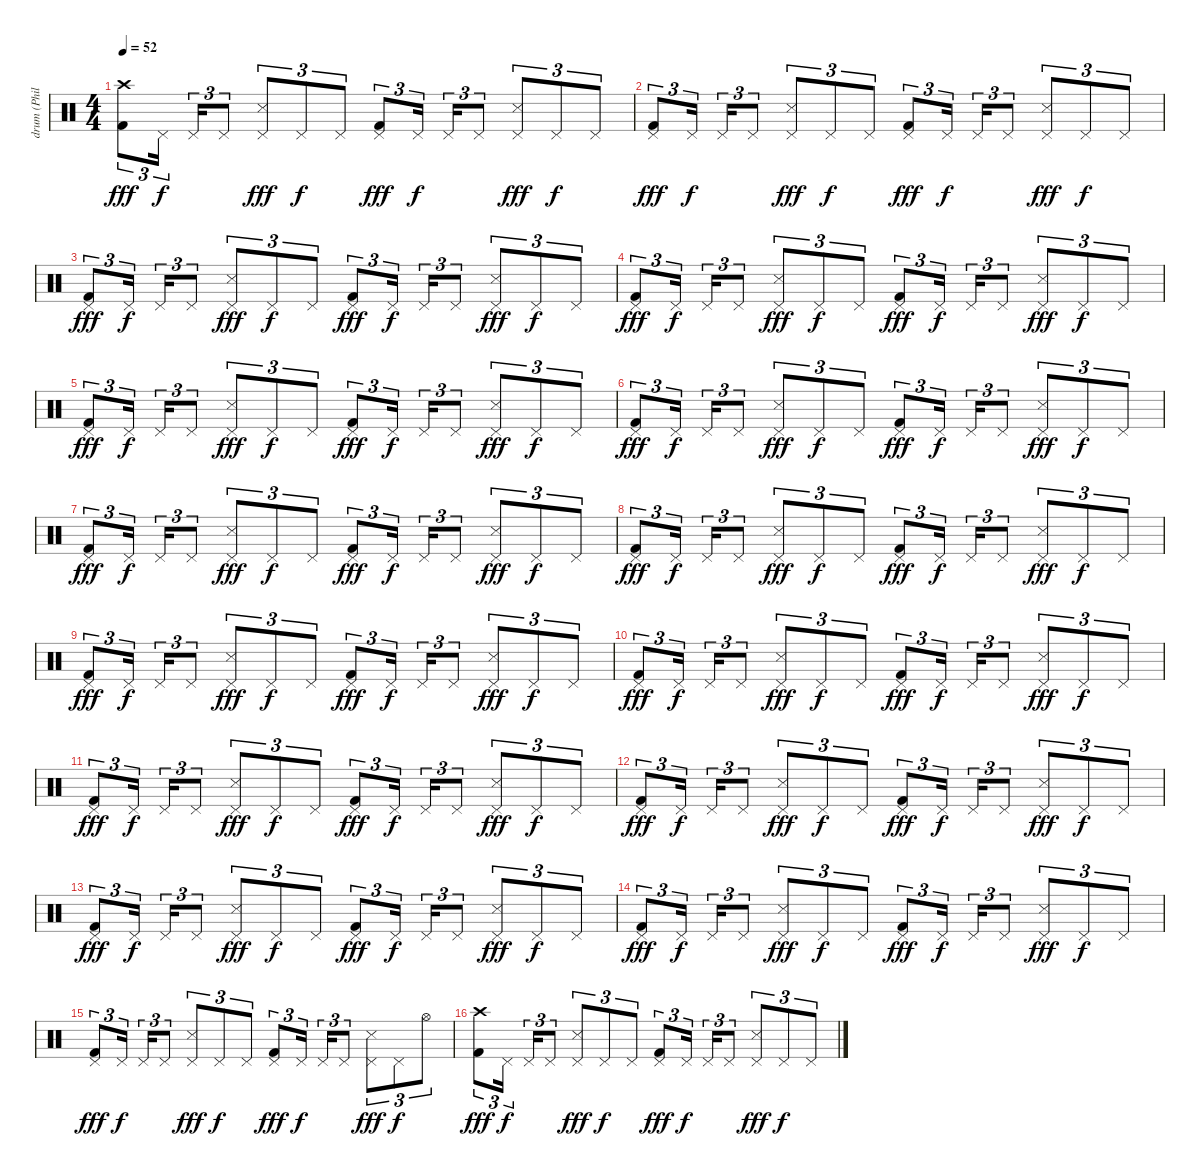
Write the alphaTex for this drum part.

\track ("drum (Phil)" "drum (Phil") {instrument percussion}
\staff {score}
\articulation defaults
\ts (4 4)
\tempo 52
\clef neutral
\ks c
("Crash high (hit)" "Kick (hit) 2").8{tu (3 2) dy fff} "Pedal Hi-Hat (hit)".16{tu (3 2) dy f} "Pedal Hi-Hat (hit)".16{tu (3 2)} "Pedal Hi-Hat (hit)".8{tu (3 2)} ("Pedal Hi-Hat (hit)" "Snare (side stick) 3").8{tu (3 2) dy fff} "Pedal Hi-Hat (hit)".8{tu (3 2) dy f} "Pedal Hi-Hat (hit)".8{tu (3 2)} ("Pedal Hi-Hat (hit)" "Kick (hit) 2").8{tu (3 2) dy fff} "Pedal Hi-Hat (hit)".16{tu (3 2) dy f} "Pedal Hi-Hat (hit)".16{tu (3 2)} "Pedal Hi-Hat (hit)".8{tu (3 2)} ("Pedal Hi-Hat (hit)" "Snare (side stick) 3").8{tu (3 2) dy fff} "Pedal Hi-Hat (hit)".8{tu (3 2) dy f} "Pedal Hi-Hat (hit)".8{tu (3 2)} |
("Pedal Hi-Hat (hit)" "Kick (hit) 2").8{tu (3 2) dy fff} "Pedal Hi-Hat (hit)".16{tu (3 2) dy f} "Pedal Hi-Hat (hit)".16{tu (3 2)} "Pedal Hi-Hat (hit)".8{tu (3 2)} ("Pedal Hi-Hat (hit)" "Snare (side stick) 3").8{tu (3 2) dy fff} "Pedal Hi-Hat (hit)".8{tu (3 2) dy f} "Pedal Hi-Hat (hit)".8{tu (3 2)} ("Pedal Hi-Hat (hit)" "Kick (hit) 2").8{tu (3 2) dy fff} "Pedal Hi-Hat (hit)".16{tu (3 2) dy f} "Pedal Hi-Hat (hit)".16{tu (3 2)} "Pedal Hi-Hat (hit)".8{tu (3 2)} ("Pedal Hi-Hat (hit)" "Snare (side stick) 3").8{tu (3 2) dy fff} "Pedal Hi-Hat (hit)".8{tu (3 2) dy f} "Pedal Hi-Hat (hit)".8{tu (3 2)} |
("Pedal Hi-Hat (hit)" "Kick (hit) 2").8{tu (3 2) dy fff} "Pedal Hi-Hat (hit)".16{tu (3 2) dy f} "Pedal Hi-Hat (hit)".16{tu (3 2)} "Pedal Hi-Hat (hit)".8{tu (3 2)} ("Pedal Hi-Hat (hit)" "Snare (side stick) 3").8{tu (3 2) dy fff} "Pedal Hi-Hat (hit)".8{tu (3 2) dy f} "Pedal Hi-Hat (hit)".8{tu (3 2)} ("Pedal Hi-Hat (hit)" "Kick (hit) 2").8{tu (3 2) dy fff} "Pedal Hi-Hat (hit)".16{tu (3 2) dy f} "Pedal Hi-Hat (hit)".16{tu (3 2)} "Pedal Hi-Hat (hit)".8{tu (3 2)} ("Pedal Hi-Hat (hit)" "Snare (side stick) 3").8{tu (3 2) dy fff} "Pedal Hi-Hat (hit)".8{tu (3 2) dy f} "Pedal Hi-Hat (hit)".8{tu (3 2)} |
("Pedal Hi-Hat (hit)" "Kick (hit) 2").8{tu (3 2) dy fff} "Pedal Hi-Hat (hit)".16{tu (3 2) dy f} "Pedal Hi-Hat (hit)".16{tu (3 2)} "Pedal Hi-Hat (hit)".8{tu (3 2)} ("Pedal Hi-Hat (hit)" "Snare (side stick) 3").8{tu (3 2) dy fff} "Pedal Hi-Hat (hit)".8{tu (3 2) dy f} "Pedal Hi-Hat (hit)".8{tu (3 2)} ("Pedal Hi-Hat (hit)" "Kick (hit) 2").8{tu (3 2) dy fff} "Pedal Hi-Hat (hit)".16{tu (3 2) dy f} "Pedal Hi-Hat (hit)".16{tu (3 2)} "Pedal Hi-Hat (hit)".8{tu (3 2)} ("Pedal Hi-Hat (hit)" "Snare (side stick) 3").8{tu (3 2) dy fff} "Pedal Hi-Hat (hit)".8{tu (3 2) dy f} "Pedal Hi-Hat (hit)".8{tu (3 2)} |
("Pedal Hi-Hat (hit)" "Kick (hit) 2").8{tu (3 2) dy fff} "Pedal Hi-Hat (hit)".16{tu (3 2) dy f} "Pedal Hi-Hat (hit)".16{tu (3 2)} "Pedal Hi-Hat (hit)".8{tu (3 2)} ("Pedal Hi-Hat (hit)" "Snare (side stick) 3").8{tu (3 2) dy fff} "Pedal Hi-Hat (hit)".8{tu (3 2) dy f} "Pedal Hi-Hat (hit)".8{tu (3 2)} ("Pedal Hi-Hat (hit)" "Kick (hit) 2").8{tu (3 2) dy fff} "Pedal Hi-Hat (hit)".16{tu (3 2) dy f} "Pedal Hi-Hat (hit)".16{tu (3 2)} "Pedal Hi-Hat (hit)".8{tu (3 2)} ("Pedal Hi-Hat (hit)" "Snare (side stick) 3").8{tu (3 2) dy fff} "Pedal Hi-Hat (hit)".8{tu (3 2) dy f} "Pedal Hi-Hat (hit)".8{tu (3 2)} |
("Pedal Hi-Hat (hit)" "Kick (hit) 2").8{tu (3 2) dy fff} "Pedal Hi-Hat (hit)".16{tu (3 2) dy f} "Pedal Hi-Hat (hit)".16{tu (3 2)} "Pedal Hi-Hat (hit)".8{tu (3 2)} ("Pedal Hi-Hat (hit)" "Snare (side stick) 3").8{tu (3 2) dy fff} "Pedal Hi-Hat (hit)".8{tu (3 2) dy f} "Pedal Hi-Hat (hit)".8{tu (3 2)} ("Pedal Hi-Hat (hit)" "Kick (hit) 2").8{tu (3 2) dy fff} "Pedal Hi-Hat (hit)".16{tu (3 2) dy f} "Pedal Hi-Hat (hit)".16{tu (3 2)} "Pedal Hi-Hat (hit)".8{tu (3 2)} ("Pedal Hi-Hat (hit)" "Snare (side stick) 3").8{tu (3 2) dy fff} "Pedal Hi-Hat (hit)".8{tu (3 2) dy f} "Pedal Hi-Hat (hit)".8{tu (3 2)} |
("Pedal Hi-Hat (hit)" "Kick (hit) 2").8{tu (3 2) dy fff} "Pedal Hi-Hat (hit)".16{tu (3 2) dy f} "Pedal Hi-Hat (hit)".16{tu (3 2)} "Pedal Hi-Hat (hit)".8{tu (3 2)} ("Pedal Hi-Hat (hit)" "Snare (side stick) 3").8{tu (3 2) dy fff} "Pedal Hi-Hat (hit)".8{tu (3 2) dy f} "Pedal Hi-Hat (hit)".8{tu (3 2)} ("Pedal Hi-Hat (hit)" "Kick (hit) 2").8{tu (3 2) dy fff} "Pedal Hi-Hat (hit)".16{tu (3 2) dy f} "Pedal Hi-Hat (hit)".16{tu (3 2)} "Pedal Hi-Hat (hit)".8{tu (3 2)} ("Pedal Hi-Hat (hit)" "Snare (side stick) 3").8{tu (3 2) dy fff} "Pedal Hi-Hat (hit)".8{tu (3 2) dy f} "Pedal Hi-Hat (hit)".8{tu (3 2)} |
("Pedal Hi-Hat (hit)" "Kick (hit) 2").8{tu (3 2) dy fff} "Pedal Hi-Hat (hit)".16{tu (3 2) dy f} "Pedal Hi-Hat (hit)".16{tu (3 2)} "Pedal Hi-Hat (hit)".8{tu (3 2)} ("Pedal Hi-Hat (hit)" "Snare (side stick) 3").8{tu (3 2) dy fff} "Pedal Hi-Hat (hit)".8{tu (3 2) dy f} "Pedal Hi-Hat (hit)".8{tu (3 2)} ("Pedal Hi-Hat (hit)" "Kick (hit) 2").8{tu (3 2) dy fff} "Pedal Hi-Hat (hit)".16{tu (3 2) dy f} "Pedal Hi-Hat (hit)".16{tu (3 2)} "Pedal Hi-Hat (hit)".8{tu (3 2)} ("Pedal Hi-Hat (hit)" "Snare (side stick) 3").8{tu (3 2) dy fff} "Pedal Hi-Hat (hit)".8{tu (3 2) dy f} "Pedal Hi-Hat (hit)".8{tu (3 2)} |
("Pedal Hi-Hat (hit)" "Kick (hit) 2").8{tu (3 2) dy fff} "Pedal Hi-Hat (hit)".16{tu (3 2) dy f} "Pedal Hi-Hat (hit)".16{tu (3 2)} "Pedal Hi-Hat (hit)".8{tu (3 2)} ("Pedal Hi-Hat (hit)" "Snare (side stick) 3").8{tu (3 2) dy fff} "Pedal Hi-Hat (hit)".8{tu (3 2) dy f} "Pedal Hi-Hat (hit)".8{tu (3 2)} ("Pedal Hi-Hat (hit)" "Kick (hit) 2").8{tu (3 2) dy fff} "Pedal Hi-Hat (hit)".16{tu (3 2) dy f} "Pedal Hi-Hat (hit)".16{tu (3 2)} "Pedal Hi-Hat (hit)".8{tu (3 2)} ("Pedal Hi-Hat (hit)" "Snare (side stick) 3").8{tu (3 2) dy fff} "Pedal Hi-Hat (hit)".8{tu (3 2) dy f} "Pedal Hi-Hat (hit)".8{tu (3 2)} |
("Pedal Hi-Hat (hit)" "Kick (hit) 2").8{tu (3 2) dy fff} "Pedal Hi-Hat (hit)".16{tu (3 2) dy f} "Pedal Hi-Hat (hit)".16{tu (3 2)} "Pedal Hi-Hat (hit)".8{tu (3 2)} ("Pedal Hi-Hat (hit)" "Snare (side stick) 3").8{tu (3 2) dy fff} "Pedal Hi-Hat (hit)".8{tu (3 2) dy f} "Pedal Hi-Hat (hit)".8{tu (3 2)} ("Pedal Hi-Hat (hit)" "Kick (hit) 2").8{tu (3 2) dy fff} "Pedal Hi-Hat (hit)".16{tu (3 2) dy f} "Pedal Hi-Hat (hit)".16{tu (3 2)} "Pedal Hi-Hat (hit)".8{tu (3 2)} ("Pedal Hi-Hat (hit)" "Snare (side stick) 3").8{tu (3 2) dy fff} "Pedal Hi-Hat (hit)".8{tu (3 2) dy f} "Pedal Hi-Hat (hit)".8{tu (3 2)} |
("Pedal Hi-Hat (hit)" "Kick (hit) 2").8{tu (3 2) dy fff} "Pedal Hi-Hat (hit)".16{tu (3 2) dy f} "Pedal Hi-Hat (hit)".16{tu (3 2)} "Pedal Hi-Hat (hit)".8{tu (3 2)} ("Pedal Hi-Hat (hit)" "Snare (side stick) 3").8{tu (3 2) dy fff} "Pedal Hi-Hat (hit)".8{tu (3 2) dy f} "Pedal Hi-Hat (hit)".8{tu (3 2)} ("Pedal Hi-Hat (hit)" "Kick (hit) 2").8{tu (3 2) dy fff} "Pedal Hi-Hat (hit)".16{tu (3 2) dy f} "Pedal Hi-Hat (hit)".16{tu (3 2)} "Pedal Hi-Hat (hit)".8{tu (3 2)} ("Pedal Hi-Hat (hit)" "Snare (side stick) 3").8{tu (3 2) dy fff} "Pedal Hi-Hat (hit)".8{tu (3 2) dy f} "Pedal Hi-Hat (hit)".8{tu (3 2)} |
("Pedal Hi-Hat (hit)" "Kick (hit) 2").8{tu (3 2) dy fff} "Pedal Hi-Hat (hit)".16{tu (3 2) dy f} "Pedal Hi-Hat (hit)".16{tu (3 2)} "Pedal Hi-Hat (hit)".8{tu (3 2)} ("Pedal Hi-Hat (hit)" "Snare (side stick) 3").8{tu (3 2) dy fff} "Pedal Hi-Hat (hit)".8{tu (3 2) dy f} "Pedal Hi-Hat (hit)".8{tu (3 2)} ("Pedal Hi-Hat (hit)" "Kick (hit) 2").8{tu (3 2) dy fff} "Pedal Hi-Hat (hit)".16{tu (3 2) dy f} "Pedal Hi-Hat (hit)".16{tu (3 2)} "Pedal Hi-Hat (hit)".8{tu (3 2)} ("Pedal Hi-Hat (hit)" "Snare (side stick) 3").8{tu (3 2) dy fff} "Pedal Hi-Hat (hit)".8{tu (3 2) dy f} "Pedal Hi-Hat (hit)".8{tu (3 2)} |
("Pedal Hi-Hat (hit)" "Kick (hit) 2").8{tu (3 2) dy fff} "Pedal Hi-Hat (hit)".16{tu (3 2) dy f} "Pedal Hi-Hat (hit)".16{tu (3 2)} "Pedal Hi-Hat (hit)".8{tu (3 2)} ("Pedal Hi-Hat (hit)" "Snare (side stick) 3").8{tu (3 2) dy fff} "Pedal Hi-Hat (hit)".8{tu (3 2) dy f} "Pedal Hi-Hat (hit)".8{tu (3 2)} ("Pedal Hi-Hat (hit)" "Kick (hit) 2").8{tu (3 2) dy fff} "Pedal Hi-Hat (hit)".16{tu (3 2) dy f} "Pedal Hi-Hat (hit)".16{tu (3 2)} "Pedal Hi-Hat (hit)".8{tu (3 2)} ("Pedal Hi-Hat (hit)" "Snare (side stick) 3").8{tu (3 2) dy fff} "Pedal Hi-Hat (hit)".8{tu (3 2) dy f} "Pedal Hi-Hat (hit)".8{tu (3 2)} |
("Pedal Hi-Hat (hit)" "Kick (hit) 2").8{tu (3 2) dy fff} "Pedal Hi-Hat (hit)".16{tu (3 2) dy f} "Pedal Hi-Hat (hit)".16{tu (3 2)} "Pedal Hi-Hat (hit)".8{tu (3 2)} ("Pedal Hi-Hat (hit)" "Snare (side stick) 3").8{tu (3 2) dy fff} "Pedal Hi-Hat (hit)".8{tu (3 2) dy f} "Pedal Hi-Hat (hit)".8{tu (3 2)} ("Pedal Hi-Hat (hit)" "Kick (hit) 2").8{tu (3 2) dy fff} "Pedal Hi-Hat (hit)".16{tu (3 2) dy f} "Pedal Hi-Hat (hit)".16{tu (3 2)} "Pedal Hi-Hat (hit)".8{tu (3 2)} ("Pedal Hi-Hat (hit)" "Snare (side stick) 3").8{tu (3 2) dy fff} "Pedal Hi-Hat (hit)".8{tu (3 2) dy f} "Pedal Hi-Hat (hit)".8{tu (3 2)} |
("Pedal Hi-Hat (hit)" "Kick (hit) 2").8{tu (3 2) dy fff} "Pedal Hi-Hat (hit)".16{tu (3 2) dy f} "Pedal Hi-Hat (hit)".16{tu (3 2)} "Pedal Hi-Hat (hit)".8{tu (3 2)} ("Pedal Hi-Hat (hit)" "Snare (side stick) 3").8{tu (3 2) dy fff} "Pedal Hi-Hat (hit)".8{tu (3 2) dy f} "Pedal Hi-Hat (hit)".8{tu (3 2)} ("Pedal Hi-Hat (hit)" "Kick (hit) 2").8{tu (3 2) dy fff} "Pedal Hi-Hat (hit)".16{tu (3 2) dy f} "Pedal Hi-Hat (hit)".16{tu (3 2)} "Pedal Hi-Hat (hit)".8{tu (3 2)} ("Pedal Hi-Hat (hit)" "Snare (side stick) 3").8{tu (3 2) dy fff} "Pedal Hi-Hat (hit)".8{tu (3 2) dy f} "Hi-Hat (open)".8{tu (3 2)} |
("Crash high (hit)" "Kick (hit) 2").8{tu (3 2) dy fff} "Pedal Hi-Hat (hit)".16{tu (3 2) dy f} "Pedal Hi-Hat (hit)".16{tu (3 2)} "Pedal Hi-Hat (hit)".8{tu (3 2)} ("Pedal Hi-Hat (hit)" "Snare (side stick) 3").8{tu (3 2) dy fff} "Pedal Hi-Hat (hit)".8{tu (3 2) dy f} "Pedal Hi-Hat (hit)".8{tu (3 2)} ("Pedal Hi-Hat (hit)" "Kick (hit) 2").8{tu (3 2) dy fff} "Pedal Hi-Hat (hit)".16{tu (3 2) dy f} "Pedal Hi-Hat (hit)".16{tu (3 2)} "Pedal Hi-Hat (hit)".8{tu (3 2)} ("Pedal Hi-Hat (hit)" "Snare (side stick) 3").8{tu (3 2) dy fff} "Pedal Hi-Hat (hit)".8{tu (3 2) dy f} "Pedal Hi-Hat (hit)".8{tu (3 2)}
